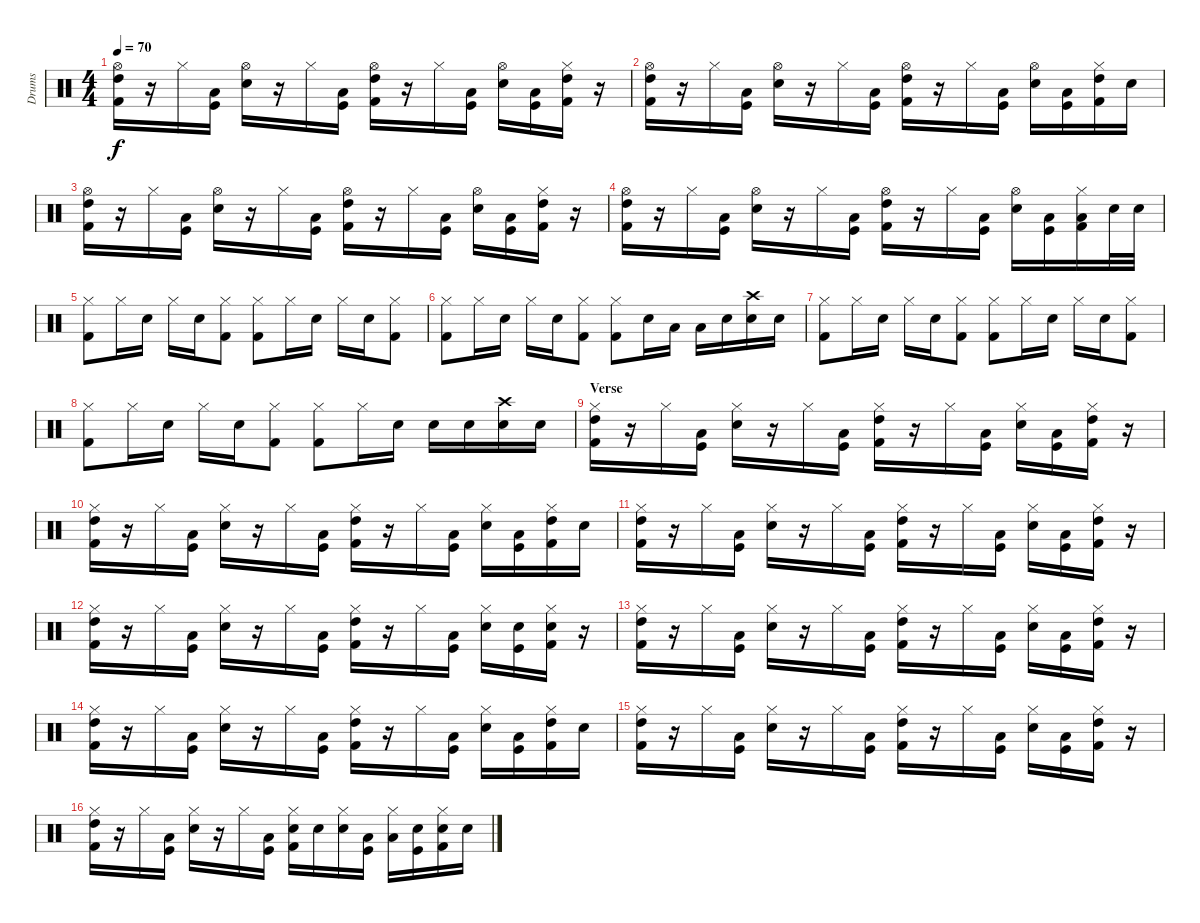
\track ("Drums" "Drums") {instrument percussion}
\staff {score}
\articulation defaults
\ts (4 4)
\tempo 70
\clef neutral
\ks c
("Hi-Hat (open)" "High Tom (hit)" "Kick (hit) 2").16{dy f} r.16 "Hi-Hat (closed)".16 ("Low Tom (hit)" "Kick (hit)").16 ("Hi-Hat (open)" "Snare (hit) 2").16 r.16 "Hi-Hat (closed)".16 ("Low Tom (hit)" "Kick (hit)").16 ("Hi-Hat (open)" "High Tom (hit)" "Kick (hit) 2").16 r.16 "Hi-Hat (closed)".16 ("Low Tom (hit)" "Kick (hit)").16 ("Hi-Hat (open)" "Snare (hit) 2").16 ("Low Tom (hit)" "Kick (hit)").16 ("Hi-Hat (closed)" "High Tom (hit)" "Kick (hit) 2").16 r.16 |
("Hi-Hat (open)" "High Tom (hit)" "Kick (hit) 2").16 r.16 "Hi-Hat (closed)".16 ("Low Tom (hit)" "Kick (hit)").16 ("Hi-Hat (open)" "Snare (hit) 2").16 r.16 "Hi-Hat (closed)".16 ("Low Tom (hit)" "Kick (hit)").16 ("Hi-Hat (open)" "High Tom (hit)" "Kick (hit) 2").16 r.16 "Hi-Hat (closed)".16 ("Low Tom (hit)" "Kick (hit)").16 ("Hi-Hat (open)" "Snare (hit) 2").16 ("Low Tom (hit)" "Kick (hit)").16 ("Hi-Hat (closed)" "High Tom (hit)" "Kick (hit) 2").16 "Snare (hit) 2".16 |
("Hi-Hat (open)" "High Tom (hit)" "Kick (hit) 2").16 r.16 "Hi-Hat (closed)".16 ("Low Tom (hit)" "Kick (hit)").16 ("Hi-Hat (open)" "Snare (hit) 2").16 r.16 "Hi-Hat (closed)".16 ("Low Tom (hit)" "Kick (hit)").16 ("Hi-Hat (open)" "High Tom (hit)" "Kick (hit) 2").16 r.16 "Hi-Hat (closed)".16 ("Low Tom (hit)" "Kick (hit)").16 ("Hi-Hat (open)" "Snare (hit) 2").16 ("Low Tom (hit)" "Kick (hit)").16 ("Hi-Hat (closed)" "High Tom (hit)" "Kick (hit) 2").16 r.16 |
("Hi-Hat (open)" "High Tom (hit)" "Kick (hit) 2").16 r.16 "Hi-Hat (closed)".16 ("Low Tom (hit)" "Kick (hit)").16 ("Hi-Hat (open)" "Snare (hit) 2").16 r.16 "Hi-Hat (closed)".16 ("Low Tom (hit)" "Kick (hit)").16 ("Hi-Hat (open)" "High Tom (hit)" "Kick (hit) 2").16 r.16 "Hi-Hat (closed)".16 ("Low Tom (hit)" "Kick (hit)").16 ("Hi-Hat (open)" "Snare (hit) 2").16 ("Low Tom (hit)" "Kick (hit)").16 ("Hi-Hat (closed)" "Low Tom (hit)" "Kick (hit) 2").16 "Snare (hit) 2".32 "Snare (hit) 2".32 |
("Hi-Hat (closed)" "Kick (hit) 2").8 "Hi-Hat (closed)".16 "Snare (hit) 2".16 "Hi-Hat (closed)".16 "Snare (hit) 2".16 ("Hi-Hat (closed)" "Kick (hit) 2").8 ("Hi-Hat (closed)" "Kick (hit) 2").8 "Hi-Hat (closed)".16 "Snare (hit) 2".16 "Hi-Hat (closed)".16 "Snare (hit) 2".16 ("Hi-Hat (closed)" "Kick (hit) 2").8 |
("Hi-Hat (closed)" "Kick (hit) 2").8 "Hi-Hat (closed)".16 "Snare (hit) 2".16 "Hi-Hat (closed)".16 "Snare (hit) 2".16 ("Hi-Hat (closed)" "Kick (hit) 2").8 ("Hi-Hat (closed)" "Kick (hit) 2").8 "Snare (hit) 2".16 "Low Tom (hit)".16 "Low Tom (hit)".16 "Snare (hit) 2".16 ("Crash high (hit)" "Snare (hit) 2").16 "Snare (hit) 2".16 |
("Hi-Hat (closed)" "Kick (hit) 2").8 "Hi-Hat (closed)".16 "Snare (hit) 2".16 "Hi-Hat (closed)".16 "Snare (hit) 2".16 ("Hi-Hat (closed)" "Kick (hit) 2").8 ("Hi-Hat (closed)" "Kick (hit) 2").8 "Hi-Hat (closed)".16 "Snare (hit) 2".16 "Hi-Hat (closed)".16 "Snare (hit) 2".16 ("Hi-Hat (closed)" "Kick (hit) 2").8 |
("Hi-Hat (closed)" "Kick (hit) 2").8 "Hi-Hat (closed)".16 "Snare (hit) 2".16 "Hi-Hat (closed)".16 "Snare (hit) 2".16 ("Hi-Hat (closed)" "Kick (hit) 2").8 ("Hi-Hat (closed)" "Kick (hit) 2").8 "Hi-Hat (closed)".16 "Snare (hit) 2".16 "Snare (hit) 2".16 "Snare (hit) 2".16 ("Crash high (hit)" "Snare (hit) 2").16 "Snare (hit) 2".16 |
\section ("" "Verse")
("Hi-Hat (closed)" "High Tom (hit)" "Kick (hit) 2").16 r.16 "Hi-Hat (closed)".16 ("Low Tom (hit)" "Kick (hit)").16 ("Hi-Hat (closed)" "Snare (hit) 2").16 r.16 "Hi-Hat (closed)".16 ("Low Tom (hit)" "Kick (hit)").16 ("Hi-Hat (closed)" "High Tom (hit)" "Kick (hit) 2").16 r.16 "Hi-Hat (closed)".16 ("Low Tom (hit)" "Kick (hit)").16 ("Hi-Hat (closed)" "Snare (hit) 2").16 ("Low Tom (hit)" "Kick (hit)").16 ("Hi-Hat (closed)" "High Tom (hit)" "Kick (hit) 2").16 r.16 |
("Hi-Hat (closed)" "High Tom (hit)" "Kick (hit) 2").16 r.16 "Hi-Hat (closed)".16 ("Low Tom (hit)" "Kick (hit)").16 ("Hi-Hat (closed)" "Snare (hit) 2").16 r.16 "Hi-Hat (closed)".16 ("Low Tom (hit)" "Kick (hit)").16 ("Hi-Hat (closed)" "High Tom (hit)" "Kick (hit) 2").16 r.16 "Hi-Hat (closed)".16 ("Low Tom (hit)" "Kick (hit)").16 ("Hi-Hat (closed)" "Snare (hit) 2").16 ("Low Tom (hit)" "Kick (hit)").16 ("Hi-Hat (closed)" "High Tom (hit)" "Kick (hit) 2").16 "Snare (hit) 2".16 |
("Hi-Hat (closed)" "High Tom (hit)" "Kick (hit) 2").16 r.16 "Hi-Hat (closed)".16 ("Low Tom (hit)" "Kick (hit)").16 ("Hi-Hat (closed)" "Snare (hit) 2").16 r.16 "Hi-Hat (closed)".16 ("Low Tom (hit)" "Kick (hit)").16 ("Hi-Hat (closed)" "High Tom (hit)" "Kick (hit) 2").16 r.16 "Hi-Hat (closed)".16 ("Low Tom (hit)" "Kick (hit)").16 ("Hi-Hat (closed)" "Snare (hit) 2").16 ("Low Tom (hit)" "Kick (hit)").16 ("Hi-Hat (closed)" "High Tom (hit)" "Kick (hit) 2").16 r.16 |
("Hi-Hat (closed)" "High Tom (hit)" "Kick (hit) 2").16 r.16 "Hi-Hat (closed)".16 ("Low Tom (hit)" "Kick (hit)").16 ("Hi-Hat (closed)" "Snare (hit) 2").16 r.16 "Hi-Hat (closed)".16 ("Low Tom (hit)" "Kick (hit)").16 ("Hi-Hat (closed)" "High Tom (hit)" "Kick (hit) 2").16 r.16 "Hi-Hat (closed)".16 ("Low Tom (hit)" "Kick (hit)").16 ("Hi-Hat (closed)" "Snare (hit) 2").16 ("Snare (hit) 2" "Kick (hit)").16 ("Hi-Hat (closed)" "Snare (hit) 2" "Kick (hit) 2").16 r.16 |
("Hi-Hat (closed)" "High Tom (hit)" "Kick (hit) 2").16 r.16 "Hi-Hat (closed)".16 ("Low Tom (hit)" "Kick (hit)").16 ("Hi-Hat (closed)" "Snare (hit) 2").16 r.16 "Hi-Hat (closed)".16 ("Low Tom (hit)" "Kick (hit)").16 ("Hi-Hat (closed)" "High Tom (hit)" "Kick (hit) 2").16 r.16 "Hi-Hat (closed)".16 ("Low Tom (hit)" "Kick (hit)").16 ("Hi-Hat (closed)" "Snare (hit) 2").16 ("Low Tom (hit)" "Kick (hit)").16 ("Hi-Hat (closed)" "High Tom (hit)" "Kick (hit) 2").16 r.16 |
("Hi-Hat (closed)" "High Tom (hit)" "Kick (hit) 2").16 r.16 "Hi-Hat (closed)".16 ("Low Tom (hit)" "Kick (hit)").16 ("Hi-Hat (closed)" "Snare (hit) 2").16 r.16 "Hi-Hat (closed)".16 ("Low Tom (hit)" "Kick (hit)").16 ("Hi-Hat (closed)" "High Tom (hit)" "Kick (hit) 2").16 r.16 "Hi-Hat (closed)".16 ("Low Tom (hit)" "Kick (hit)").16 ("Hi-Hat (closed)" "Snare (hit) 2").16 ("Low Tom (hit)" "Kick (hit)").16 ("Hi-Hat (closed)" "High Tom (hit)" "Kick (hit) 2").16 "Snare (hit) 2".16 |
("Hi-Hat (closed)" "High Tom (hit)" "Kick (hit) 2").16 r.16 "Hi-Hat (closed)".16 ("Low Tom (hit)" "Kick (hit)").16 ("Hi-Hat (closed)" "Snare (hit) 2").16 r.16 "Hi-Hat (closed)".16 ("Low Tom (hit)" "Kick (hit)").16 ("Hi-Hat (closed)" "High Tom (hit)" "Kick (hit) 2").16 r.16 "Hi-Hat (closed)".16 ("Low Tom (hit)" "Kick (hit)").16 ("Hi-Hat (closed)" "Snare (hit) 2").16 ("Low Tom (hit)" "Kick (hit)").16 ("Hi-Hat (closed)" "High Tom (hit)" "Kick (hit) 2").16 r.16 |
("Hi-Hat (closed)" "High Tom (hit)" "Kick (hit) 2").16 r.16 "Hi-Hat (closed)".16 ("Low Tom (hit)" "Kick (hit)").16 ("Hi-Hat (closed)" "Snare (hit) 2").16 r.16 "Hi-Hat (closed)".16 ("Low Tom (hit)" "Kick (hit)").16 ("Hi-Hat (closed)" "Snare (hit) 2" "Kick (hit) 2").16 "Snare (hit) 2".16 ("Hi-Hat (closed)" "Snare (hit) 2").16 ("Low Tom (hit)" "Kick (hit)").16 ("Hi-Hat (closed)" "Low Tom (hit)").16 ("Snare (hit) 2" "Kick (hit)").16 ("Hi-Hat (closed)" "Snare (hit) 2" "Kick (hit) 2").16 "Snare (hit) 2".16
